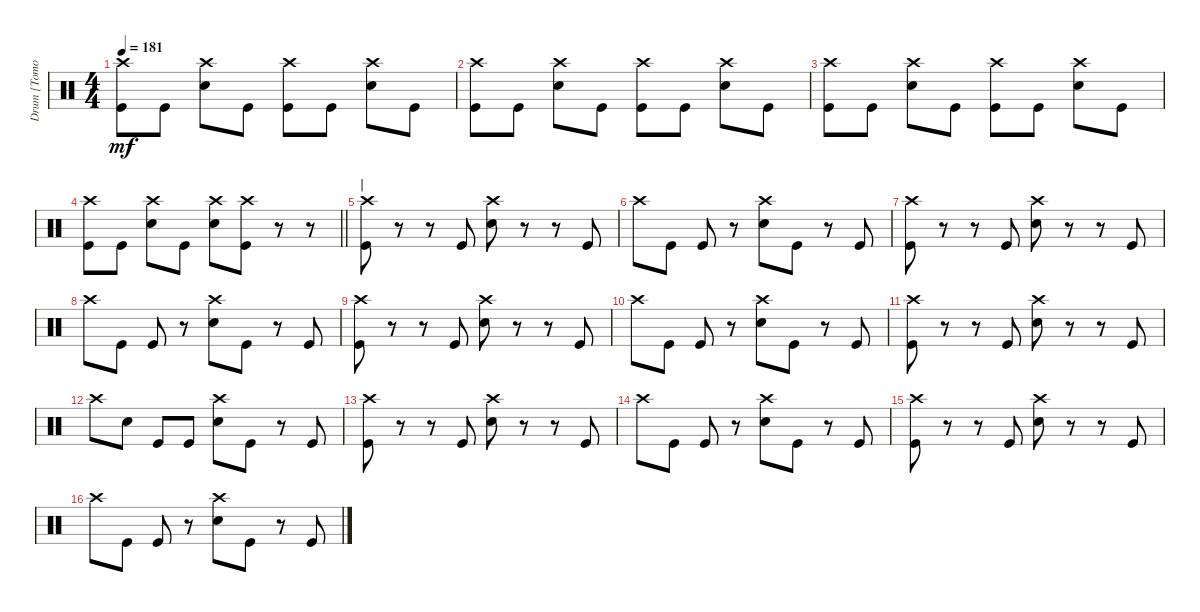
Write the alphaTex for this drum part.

\track ("Drum [Tomoya]" "Drum [Tomo") {instrument percussion}
\staff {score}
\articulation defaults
\ts (4 4)
\tempo 181
\clef neutral
\ks c
("Kick (hit)" "Crash high (hit)").8{dy mf} "Kick (hit)".8 ("Snare (hit) 2" "Crash high (hit)").8 "Kick (hit)".8 ("Kick (hit)" "Crash high (hit)").8 "Kick (hit)".8 ("Snare (hit) 2" "Crash high (hit)").8 "Kick (hit)".8 |
("Kick (hit)" "Crash high (hit)").8 "Kick (hit)".8 ("Snare (hit) 2" "Crash high (hit)").8 "Kick (hit)".8 ("Kick (hit)" "Crash high (hit)").8 "Kick (hit)".8 ("Snare (hit) 2" "Crash high (hit)").8 "Kick (hit)".8 |
("Kick (hit)" "Crash high (hit)").8 "Kick (hit)".8 ("Snare (hit) 2" "Crash high (hit)").8 "Kick (hit)".8 ("Kick (hit)" "Crash high (hit)").8 "Kick (hit)".8 ("Snare (hit) 2" "Crash high (hit)").8 "Kick (hit)".8 |
\barLineRight lightlight
("Kick (hit)" "Crash high (hit)").8 "Kick (hit)".8 ("Snare (hit) 2" "Crash high (hit)").8 "Kick (hit)".8 ("Crash high (hit)" "Snare (hit) 2").8 ("Kick (hit)" "Crash high (hit)").8 r.8 r.8 |
\section ("" "|")
("Kick (hit)" "Crash high (hit)").8 r.8 r.8 "Kick (hit)".8 ("Snare (hit) 2" "Crash high (hit)").8 r.8 r.8 "Kick (hit)".8 |
"Crash high (hit)".8 "Kick (hit)".8 "Kick (hit)".8 r.8 ("Snare (hit) 2" "Crash high (hit)").8 "Kick (hit)".8 r.8 "Kick (hit)".8 |
("Kick (hit)" "Crash high (hit)").8 r.8 r.8 "Kick (hit)".8 ("Snare (hit) 2" "Crash high (hit)").8 r.8 r.8 "Kick (hit)".8 |
"Crash high (hit)".8 "Kick (hit)".8 "Kick (hit)".8 r.8 ("Snare (hit) 2" "Crash high (hit)").8 "Kick (hit)".8 r.8 "Kick (hit)".8 |
("Kick (hit)" "Crash high (hit)").8 r.8 r.8 "Kick (hit)".8 ("Snare (hit) 2" "Crash high (hit)").8 r.8 r.8 "Kick (hit)".8 |
"Crash high (hit)".8 "Kick (hit)".8 "Kick (hit)".8 r.8 ("Snare (hit) 2" "Crash high (hit)").8 "Kick (hit)".8 r.8 "Kick (hit)".8 |
("Kick (hit)" "Crash high (hit)").8 r.8 r.8 "Kick (hit)".8 ("Snare (hit) 2" "Crash high (hit)").8 r.8 r.8 "Kick (hit)".8 |
"Crash high (hit)".8 "Snare (hit) 2".8 "Kick (hit)".8 "Kick (hit)".8 ("Crash high (hit)" "Snare (hit) 2").8 "Kick (hit)".8 r.8 "Kick (hit)".8 |
("Kick (hit)" "Crash high (hit)").8 r.8 r.8 "Kick (hit)".8 ("Snare (hit) 2" "Crash high (hit)").8 r.8 r.8 "Kick (hit)".8 |
"Crash high (hit)".8 "Kick (hit)".8 "Kick (hit)".8 r.8 ("Snare (hit) 2" "Crash high (hit)").8 "Kick (hit)".8 r.8 "Kick (hit)".8 |
("Kick (hit)" "Crash high (hit)").8 r.8 r.8 "Kick (hit)".8 ("Snare (hit) 2" "Crash high (hit)").8 r.8 r.8 "Kick (hit)".8 |
"Crash high (hit)".8 "Kick (hit)".8 "Kick (hit)".8 r.8 ("Snare (hit) 2" "Crash high (hit)").8 "Kick (hit)".8 r.8 "Kick (hit)".8
